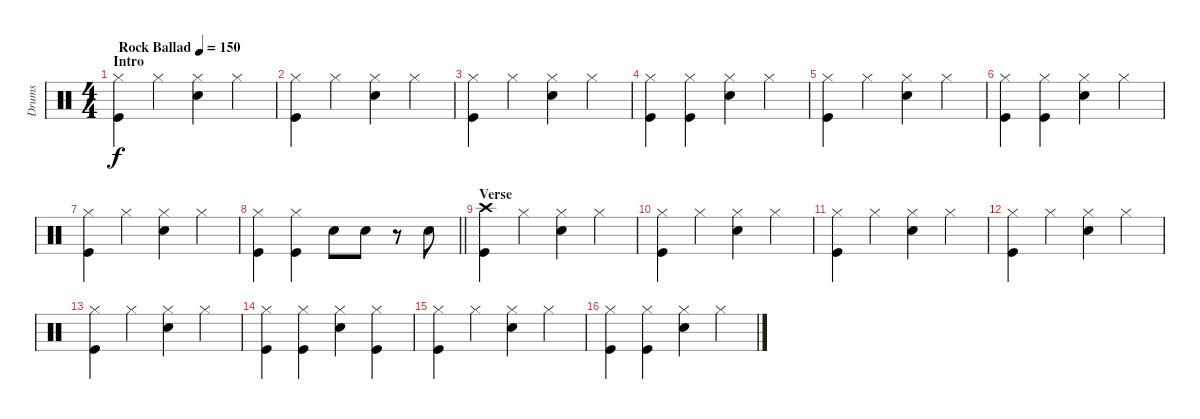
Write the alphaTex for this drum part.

\track ("Drums" "Drums") {instrument percussion}
\staff {score}
\articulation defaults
\ts (4 4)
\section ("" "Intro")
\tempo (150 "Rock Ballad")
\clef neutral
\ks c
("Hi-Hat (closed)" "Kick (hit)").4{dy f} "Hi-Hat (closed)".4 ("Hi-Hat (closed)" "Snare (hit) 2").4 "Hi-Hat (closed)".4 |
("Hi-Hat (closed)" "Kick (hit)").4 "Hi-Hat (closed)".4 ("Hi-Hat (closed)" "Snare (hit) 2").4 "Hi-Hat (closed)".4 |
("Hi-Hat (closed)" "Kick (hit)").4 "Hi-Hat (closed)".4 ("Hi-Hat (closed)" "Snare (hit) 2").4 "Hi-Hat (closed)".4 |
("Hi-Hat (closed)" "Kick (hit)").4 ("Hi-Hat (closed)" "Kick (hit)").4 ("Hi-Hat (closed)" "Snare (hit) 2").4 "Hi-Hat (closed)".4 |
("Hi-Hat (closed)" "Kick (hit)").4 "Hi-Hat (closed)".4 ("Hi-Hat (closed)" "Snare (hit) 2").4 "Hi-Hat (closed)".4 |
("Hi-Hat (closed)" "Kick (hit)").4 ("Hi-Hat (closed)" "Kick (hit)").4 ("Hi-Hat (closed)" "Snare (hit) 2").4 "Hi-Hat (closed)".4 |
("Hi-Hat (closed)" "Kick (hit)").4 "Hi-Hat (closed)".4 ("Hi-Hat (closed)" "Snare (hit) 2").4 "Hi-Hat (closed)".4 |
\barLineRight lightlight
("Hi-Hat (closed)" "Kick (hit)").4 ("Hi-Hat (closed)" "Kick (hit)").4 "Snare (hit) 2".8 "Snare (hit) 2".8 r.8 "Snare (hit) 2".8 |
\section ("" "Verse")
("Crash high (hit)" "Kick (hit)").4 "Hi-Hat (closed)".4 ("Hi-Hat (closed)" "Snare (hit) 2").4 "Hi-Hat (closed)".4 |
("Hi-Hat (closed)" "Kick (hit)").4 "Hi-Hat (closed)".4 ("Hi-Hat (closed)" "Snare (hit) 2").4 "Hi-Hat (closed)".4 |
("Hi-Hat (closed)" "Kick (hit)").4 "Hi-Hat (closed)".4 ("Hi-Hat (closed)" "Snare (hit) 2").4 "Hi-Hat (closed)".4 |
("Hi-Hat (closed)" "Kick (hit)").4 "Hi-Hat (closed)".4 ("Hi-Hat (closed)" "Snare (hit) 2").4 "Hi-Hat (closed)".4 |
("Hi-Hat (closed)" "Kick (hit)").4 "Hi-Hat (closed)".4 ("Hi-Hat (closed)" "Snare (hit) 2").4 "Hi-Hat (closed)".4 |
("Hi-Hat (closed)" "Kick (hit)").4 ("Hi-Hat (closed)" "Kick (hit)").4 ("Hi-Hat (closed)" "Snare (hit) 2").4 ("Hi-Hat (closed)" "Kick (hit)").4 |
("Hi-Hat (closed)" "Kick (hit)").4 "Hi-Hat (closed)".4 ("Hi-Hat (closed)" "Snare (hit) 2").4 "Hi-Hat (closed)".4 |
("Hi-Hat (closed)" "Kick (hit)").4 ("Hi-Hat (closed)" "Kick (hit)").4 ("Hi-Hat (closed)" "Snare (hit) 2").4 "Hi-Hat (closed)".4
